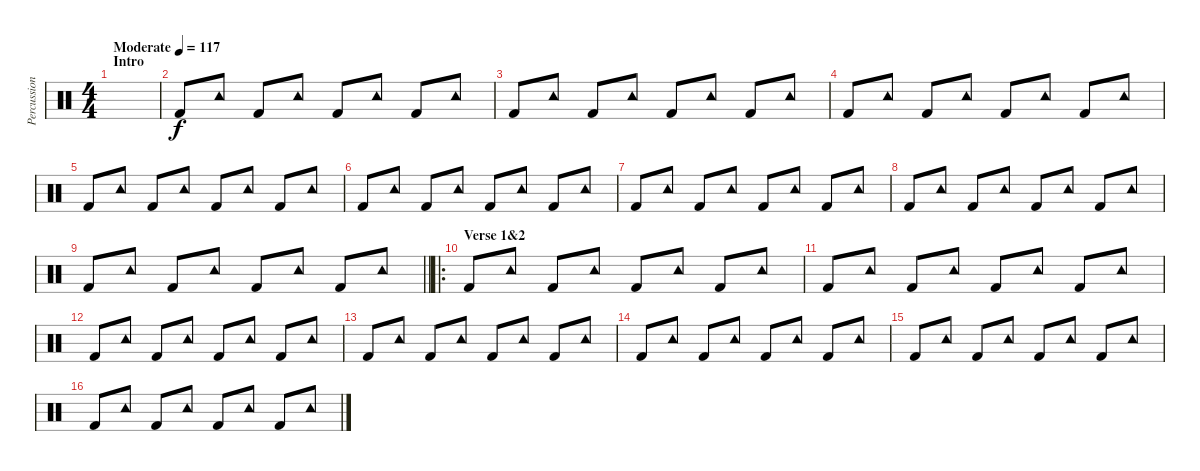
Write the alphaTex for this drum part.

\track ("Percussion" "Percussion") {instrument percussion}
\staff {score}
\articulation defaults
\ts (4 4)
\section ("" "Intro")
\tempo (117 "Moderate")
\clef neutral
\ks c
|
"Kick (hit) 2".8 "Tambourine (hit)".8 "Kick (hit) 2".8 "Tambourine (hit)".8 "Kick (hit) 2".8 "Tambourine (hit)".8 "Kick (hit) 2".8 "Tambourine (hit)".8 |
"Kick (hit) 2".8 "Tambourine (hit)".8 "Kick (hit) 2".8 "Tambourine (hit)".8 "Kick (hit) 2".8 "Tambourine (hit)".8 "Kick (hit) 2".8 "Tambourine (hit)".8 |
"Kick (hit) 2".8 "Tambourine (hit)".8 "Kick (hit) 2".8 "Tambourine (hit)".8 "Kick (hit) 2".8 "Tambourine (hit)".8 "Kick (hit) 2".8 "Tambourine (hit)".8 |
"Kick (hit) 2".8 "Tambourine (hit)".8 "Kick (hit) 2".8 "Tambourine (hit)".8 "Kick (hit) 2".8 "Tambourine (hit)".8 "Kick (hit) 2".8 "Tambourine (hit)".8 |
"Kick (hit) 2".8 "Tambourine (hit)".8 "Kick (hit) 2".8 "Tambourine (hit)".8 "Kick (hit) 2".8 "Tambourine (hit)".8 "Kick (hit) 2".8 "Tambourine (hit)".8 |
"Kick (hit) 2".8 "Tambourine (hit)".8 "Kick (hit) 2".8 "Tambourine (hit)".8 "Kick (hit) 2".8 "Tambourine (hit)".8 "Kick (hit) 2".8 "Tambourine (hit)".8 |
"Kick (hit) 2".8 "Tambourine (hit)".8 "Kick (hit) 2".8 "Tambourine (hit)".8 "Kick (hit) 2".8 "Tambourine (hit)".8 "Kick (hit) 2".8 "Tambourine (hit)".8 |
\barLineRight lightlight "Kick (hit) 2".8 "Tambourine (hit)".8 "Kick (hit) 2".8 "Tambourine (hit)".8 "Kick (hit) 2".8 "Tambourine (hit)".8 "Kick (hit) 2".8 "Tambourine (hit)".8
|
\ro
\section ("" "Verse 1&2")
"Kick (hit) 2".8 "Tambourine (hit)".8 "Kick (hit) 2".8 "Tambourine (hit)".8 "Kick (hit) 2".8 "Tambourine (hit)".8 "Kick (hit) 2".8 "Tambourine (hit)".8 |
"Kick (hit) 2".8 "Tambourine (hit)".8 "Kick (hit) 2".8 "Tambourine (hit)".8 "Kick (hit) 2".8 "Tambourine (hit)".8 "Kick (hit) 2".8 "Tambourine (hit)".8 |
"Kick (hit) 2".8 "Tambourine (hit)".8 "Kick (hit) 2".8 "Tambourine (hit)".8 "Kick (hit) 2".8 "Tambourine (hit)".8 "Kick (hit) 2".8 "Tambourine (hit)".8 |
"Kick (hit) 2".8 "Tambourine (hit)".8 "Kick (hit) 2".8 "Tambourine (hit)".8 "Kick (hit) 2".8 "Tambourine (hit)".8 "Kick (hit) 2".8 "Tambourine (hit)".8 |
"Kick (hit) 2".8 "Tambourine (hit)".8 "Kick (hit) 2".8 "Tambourine (hit)".8 "Kick (hit) 2".8 "Tambourine (hit)".8 "Kick (hit) 2".8 "Tambourine (hit)".8 |
"Kick (hit) 2".8 "Tambourine (hit)".8 "Kick (hit) 2".8 "Tambourine (hit)".8 "Kick (hit) 2".8 "Tambourine (hit)".8 "Kick (hit) 2".8 "Tambourine (hit)".8 |
"Kick (hit) 2".8 "Tambourine (hit)".8 "Kick (hit) 2".8 "Tambourine (hit)".8 "Kick (hit) 2".8 "Tambourine (hit)".8 "Kick (hit) 2".8 "Tambourine (hit)".8
